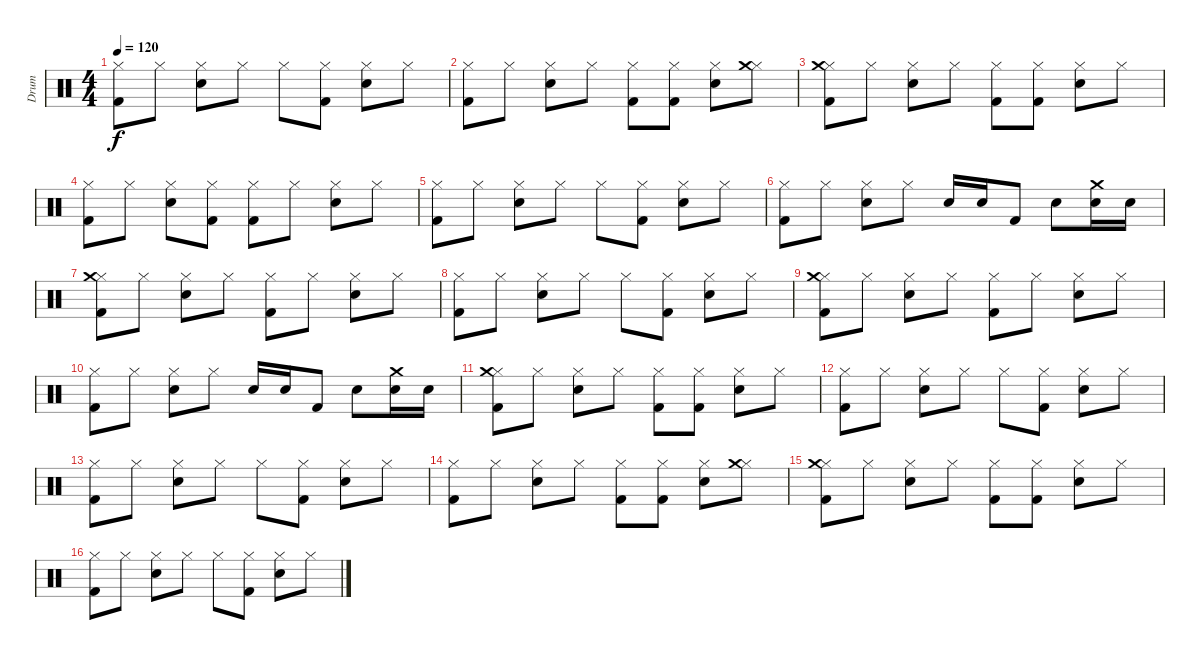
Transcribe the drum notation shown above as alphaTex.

\track ("Drum" "Drum") {instrument percussion}
\staff {score}
\articulation defaults
\ts (4 4)
\tempo 120
\clef neutral
\ks c
("Hi-Hat (closed)" "Kick (hit) 2").8{dy f} "Hi-Hat (closed)".8 ("Hi-Hat (closed)" "Snare (hit) 2").8 "Hi-Hat (closed)".8 "Hi-Hat (closed)".8 ("Hi-Hat (closed)" "Kick (hit) 2").8 ("Hi-Hat (closed)" "Snare (hit) 2").8 "Hi-Hat (closed)".8 |
("Hi-Hat (closed)" "Kick (hit) 2").8 "Hi-Hat (closed)".8 ("Hi-Hat (closed)" "Snare (hit) 2").8 "Hi-Hat (closed)".8 ("Hi-Hat (closed)" "Kick (hit) 2").8 ("Hi-Hat (closed)" "Kick (hit) 2").8 ("Hi-Hat (closed)" "Snare (hit) 2").8 ("Hi-Hat (closed)" "Crash medium (hit)").8 |
("Hi-Hat (closed)" "Kick (hit) 2" "Crash medium (hit)").8 "Hi-Hat (closed)".8 ("Hi-Hat (closed)" "Snare (hit) 2").8 "Hi-Hat (closed)".8 ("Hi-Hat (closed)" "Kick (hit) 2").8 ("Hi-Hat (closed)" "Kick (hit) 2").8 ("Hi-Hat (closed)" "Snare (hit) 2").8 "Hi-Hat (closed)".8 |
("Hi-Hat (closed)" "Kick (hit) 2").8 "Hi-Hat (closed)".8 ("Hi-Hat (closed)" "Snare (hit) 2").8 ("Hi-Hat (closed)" "Kick (hit) 2").8 ("Hi-Hat (closed)" "Kick (hit) 2").8 "Hi-Hat (closed)".8 ("Hi-Hat (closed)" "Snare (hit) 2").8 "Hi-Hat (closed)".8 |
("Hi-Hat (closed)" "Kick (hit) 2").8 "Hi-Hat (closed)".8 ("Hi-Hat (closed)" "Snare (hit) 2").8 "Hi-Hat (closed)".8 "Hi-Hat (closed)".8 ("Hi-Hat (closed)" "Kick (hit) 2").8 ("Hi-Hat (closed)" "Snare (hit) 2").8 "Hi-Hat (closed)".8 |
("Hi-Hat (closed)" "Kick (hit) 2").8 "Hi-Hat (closed)".8 ("Hi-Hat (closed)" "Snare (hit) 2").8 "Hi-Hat (closed)".8 "Snare (hit) 2".16 "Snare (hit) 2".16 "Kick (hit) 2".8 "Snare (hit) 2".8 ("Crash medium (hit)" "Snare (hit) 2").16 "Snare (hit) 2".16 |
("Hi-Hat (closed)" "Kick (hit) 2" "Crash medium (hit)").8 "Hi-Hat (closed)".8 ("Hi-Hat (closed)" "Snare (hit) 2").8 "Hi-Hat (closed)".8 ("Hi-Hat (closed)" "Kick (hit) 2").8 "Hi-Hat (closed)".8 ("Hi-Hat (closed)" "Snare (hit) 2").8 "Hi-Hat (closed)".8 |
("Hi-Hat (closed)" "Kick (hit) 2").8 "Hi-Hat (closed)".8 ("Hi-Hat (closed)" "Snare (hit) 2").8 "Hi-Hat (closed)".8 "Hi-Hat (closed)".8 ("Hi-Hat (closed)" "Kick (hit) 2").8 ("Hi-Hat (closed)" "Snare (hit) 2").8 "Hi-Hat (closed)".8 |
("Hi-Hat (closed)" "Kick (hit) 2" "Crash medium (hit)").8 "Hi-Hat (closed)".8 ("Hi-Hat (closed)" "Snare (hit) 2").8 "Hi-Hat (closed)".8 ("Hi-Hat (closed)" "Kick (hit) 2").8 "Hi-Hat (closed)".8 ("Hi-Hat (closed)" "Snare (hit) 2").8 "Hi-Hat (closed)".8 |
("Hi-Hat (closed)" "Kick (hit) 2").8 "Hi-Hat (closed)".8 ("Hi-Hat (closed)" "Snare (hit) 2").8 "Hi-Hat (closed)".8 "Snare (hit) 2".16 "Snare (hit) 2".16 "Kick (hit) 2".8 "Snare (hit) 2".8 ("Crash medium (hit)" "Snare (hit) 2").16 "Snare (hit) 2".16 |
("Hi-Hat (closed)" "Kick (hit) 2" "Crash medium (hit)").8 "Hi-Hat (closed)".8 ("Hi-Hat (closed)" "Snare (hit) 2").8 "Hi-Hat (closed)".8 ("Hi-Hat (closed)" "Kick (hit) 2").8 ("Hi-Hat (closed)" "Kick (hit) 2").8 ("Hi-Hat (closed)" "Snare (hit) 2").8 "Hi-Hat (closed)".8 |
("Hi-Hat (closed)" "Kick (hit) 2").8 "Hi-Hat (closed)".8 ("Hi-Hat (closed)" "Snare (hit) 2").8 "Hi-Hat (closed)".8 "Hi-Hat (closed)".8 ("Hi-Hat (closed)" "Kick (hit) 2").8 ("Hi-Hat (closed)" "Snare (hit) 2").8 "Hi-Hat (closed)".8 |
("Hi-Hat (closed)" "Kick (hit) 2").8 "Hi-Hat (closed)".8 ("Hi-Hat (closed)" "Snare (hit) 2").8 "Hi-Hat (closed)".8 "Hi-Hat (closed)".8 ("Hi-Hat (closed)" "Kick (hit) 2").8 ("Hi-Hat (closed)" "Snare (hit) 2").8 "Hi-Hat (closed)".8 |
("Hi-Hat (closed)" "Kick (hit) 2").8 "Hi-Hat (closed)".8 ("Hi-Hat (closed)" "Snare (hit) 2").8 "Hi-Hat (closed)".8 ("Hi-Hat (closed)" "Kick (hit) 2").8 ("Hi-Hat (closed)" "Kick (hit) 2").8 ("Hi-Hat (closed)" "Snare (hit) 2").8 ("Hi-Hat (closed)" "Crash medium (hit)").8 |
("Hi-Hat (closed)" "Kick (hit) 2" "Crash medium (hit)").8 "Hi-Hat (closed)".8 ("Hi-Hat (closed)" "Snare (hit) 2").8 "Hi-Hat (closed)".8 ("Hi-Hat (closed)" "Kick (hit) 2").8 ("Hi-Hat (closed)" "Kick (hit) 2").8 ("Hi-Hat (closed)" "Snare (hit) 2").8 "Hi-Hat (closed)".8 |
("Hi-Hat (closed)" "Kick (hit) 2").8 "Hi-Hat (closed)".8 ("Hi-Hat (closed)" "Snare (hit) 2").8 "Hi-Hat (closed)".8 "Hi-Hat (closed)".8 ("Hi-Hat (closed)" "Kick (hit) 2").8 ("Hi-Hat (closed)" "Snare (hit) 2").8 "Hi-Hat (closed)".8
